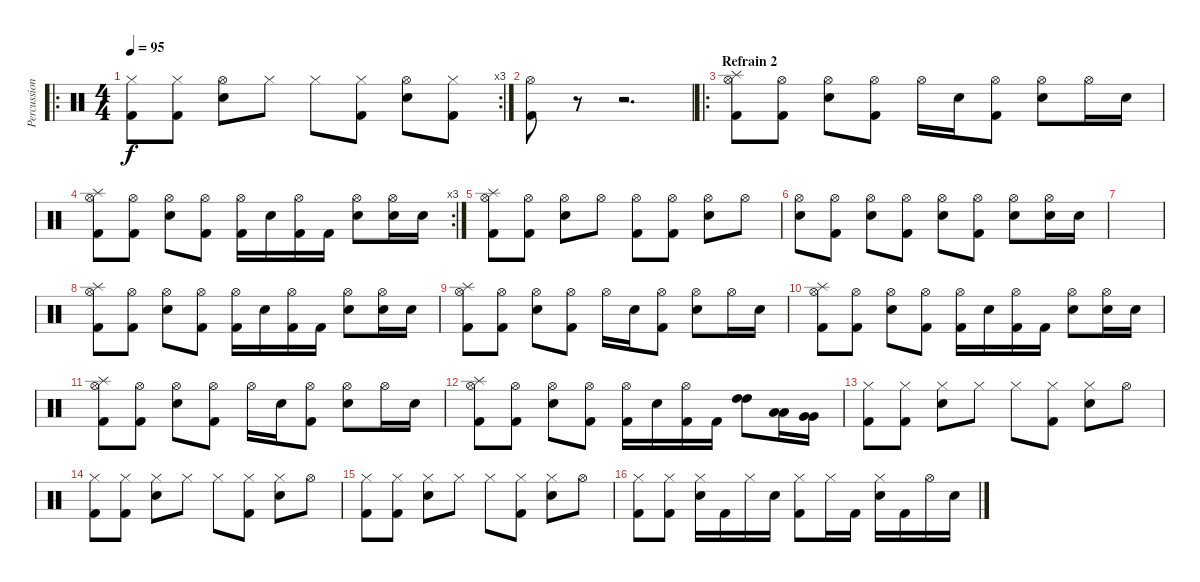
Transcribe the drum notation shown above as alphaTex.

\track ("Percussions" "Percussion") {instrument percussion}
\staff {score}
\articulation defaults
\ro
\rc 3
\ts (4 4)
\tempo 95
\clef neutral
\ks c
("Hi-Hat (closed)" "Kick (hit) 2").8{dy f} ("Hi-Hat (closed)" "Kick (hit) 2").8 ("Hi-Hat (open)" "Snare (hit) 2").8 "Hi-Hat (closed)".8 "Hi-Hat (closed)".8 ("Hi-Hat (closed)" "Kick (hit) 2").8 ("Hi-Hat (open)" "Snare (hit) 2").8 ("Hi-Hat (closed)" "Kick (hit) 2").8 |
("Hi-Hat (open)" "Kick (hit) 2").8 r.8 r.2{d} |
\ro
\section ("" "Refrain 2")
("Splash (hit)" "Hi-Hat (open)" "Kick (hit) 2").8 ("Hi-Hat (open)" "Kick (hit) 2").8 ("Hi-Hat (open)" "Snare (hit) 2").8 ("Hi-Hat (open)" "Kick (hit) 2").8 "Hi-Hat (open)".16 "Snare (hit) 2".16 ("Hi-Hat (open)" "Kick (hit) 2").8 ("Hi-Hat (open)" "Snare (hit) 2").8 "Hi-Hat (open)".16 "Snare (hit) 2".16 |
\rc 3
("Splash (hit)" "Hi-Hat (open)" "Kick (hit) 2").8 ("Hi-Hat (open)" "Kick (hit) 2").8 ("Hi-Hat (open)" "Snare (hit) 2").8 ("Hi-Hat (open)" "Kick (hit) 2").8 ("Hi-Hat (open)" "Kick (hit) 2").16 "Snare (hit) 2".16 ("Hi-Hat (open)" "Kick (hit) 2").16 "Kick (hit) 2".16 ("Hi-Hat (open)" "Snare (hit) 2").8 ("Hi-Hat (open)" "Snare (hit) 2").16 "Snare (hit) 2".16 |
("Splash (hit)" "Hi-Hat (open)" "Kick (hit) 2").8 ("Hi-Hat (open)" "Kick (hit) 2").8 ("Hi-Hat (open)" "Snare (hit) 2").8 "Hi-Hat (open)".8 ("Hi-Hat (open)" "Kick (hit) 2").8 ("Hi-Hat (open)" "Kick (hit) 2").8 ("Hi-Hat (open)" "Snare (hit) 2").8 "Hi-Hat (open)".8 |
("Hi-Hat (open)" "Snare (hit) 2").8 ("Hi-Hat (open)" "Kick (hit) 2").8 ("Hi-Hat (open)" "Snare (hit) 2").8 ("Hi-Hat (open)" "Kick (hit) 2").8 ("Hi-Hat (open)" "Snare (hit) 2").8 ("Hi-Hat (open)" "Kick (hit) 2").8 ("Hi-Hat (open)" "Snare (hit) 2").8 ("Hi-Hat (open)" "Snare (hit) 2").16 "Snare (hit) 2".16 |
|
("Splash (hit)" "Hi-Hat (open)" "Kick (hit) 2").8 ("Hi-Hat (open)" "Kick (hit) 2").8 ("Hi-Hat (open)" "Snare (hit) 2").8 ("Hi-Hat (open)" "Kick (hit) 2").8 ("Hi-Hat (open)" "Kick (hit) 2").16 "Snare (hit) 2".16 ("Hi-Hat (open)" "Kick (hit) 2").16 "Kick (hit) 2".16 ("Hi-Hat (open)" "Snare (hit) 2").8 ("Hi-Hat (open)" "Snare (hit) 2").16 "Snare (hit) 2".16 |
("Splash (hit)" "Hi-Hat (open)" "Kick (hit) 2").8 ("Hi-Hat (open)" "Kick (hit) 2").8 ("Hi-Hat (open)" "Snare (hit) 2").8 ("Hi-Hat (open)" "Kick (hit) 2").8 "Hi-Hat (open)".16 "Snare (hit) 2".16 ("Hi-Hat (open)" "Kick (hit) 2").8 ("Hi-Hat (open)" "Snare (hit) 2").8 "Hi-Hat (open)".16 "Snare (hit) 2".16 |
("Splash (hit)" "Hi-Hat (open)" "Kick (hit) 2").8 ("Hi-Hat (open)" "Kick (hit) 2").8 ("Hi-Hat (open)" "Snare (hit) 2").8 ("Hi-Hat (open)" "Kick (hit) 2").8 ("Hi-Hat (open)" "Kick (hit) 2").16 "Snare (hit) 2".16 ("Hi-Hat (open)" "Kick (hit) 2").16 "Kick (hit) 2".16 ("Hi-Hat (open)" "Snare (hit) 2").8 ("Hi-Hat (open)" "Snare (hit) 2").16 "Snare (hit) 2".16 |
("Splash (hit)" "Hi-Hat (open)" "Kick (hit) 2").8 ("Hi-Hat (open)" "Kick (hit) 2").8 ("Hi-Hat (open)" "Snare (hit) 2").8 ("Hi-Hat (open)" "Kick (hit) 2").8 "Hi-Hat (open)".16 "Snare (hit) 2".16 ("Hi-Hat (open)" "Kick (hit) 2").8 ("Hi-Hat (open)" "Snare (hit) 2").8 "Hi-Hat (open)".16 "Snare (hit) 2".16 |
("Splash (hit)" "Hi-Hat (open)" "Kick (hit) 2").8 ("Hi-Hat (open)" "Kick (hit) 2").8 ("Hi-Hat (open)" "Snare (hit) 2").8 ("Hi-Hat (open)" "Kick (hit) 2").8 ("Hi-Hat (open)" "Kick (hit) 2").16 "Snare (hit) 2".16 ("Hi-Hat (open)" "Kick (hit) 2").16 "Kick (hit) 2".16 ("High Tom (hit)" "High Tom (hit)").8 ("Low Tom (hit)" "Low Tom (hit)").16 ("Very Low Tom (hit)" "Very Low Tom (hit)").16 |
("Hi-Hat (closed)" "Kick (hit) 2").8 ("Hi-Hat (closed)" "Kick (hit) 2").8 ("Hi-Hat (closed)" "Snare (hit) 2").8 "Hi-Hat (closed)".8 "Hi-Hat (closed)".8 ("Hi-Hat (closed)" "Kick (hit) 2").8 ("Hi-Hat (closed)" "Snare (hit) 2").8 "Hi-Hat (open)".8 |
("Hi-Hat (closed)" "Kick (hit) 2").8 ("Hi-Hat (closed)" "Kick (hit) 2").8 ("Hi-Hat (closed)" "Snare (hit) 2").8 "Hi-Hat (closed)".8 "Hi-Hat (closed)".8 ("Hi-Hat (closed)" "Kick (hit) 2").8 ("Hi-Hat (closed)" "Snare (hit) 2").8 "Hi-Hat (open)".8 |
("Hi-Hat (closed)" "Kick (hit) 2").8 ("Hi-Hat (closed)" "Kick (hit) 2").8 ("Hi-Hat (closed)" "Snare (hit) 2").8 "Hi-Hat (closed)".8 "Hi-Hat (closed)".8 ("Hi-Hat (closed)" "Kick (hit) 2").8 ("Hi-Hat (closed)" "Snare (hit) 2").8 "Hi-Hat (open)".8 |
("Hi-Hat (closed)" "Kick (hit) 2").8 ("Hi-Hat (closed)" "Kick (hit) 2").8 ("Hi-Hat (closed)" "Snare (hit) 2").16 "Kick (hit) 2".16 "Hi-Hat (closed)".16 "Snare (hit) 2".16 ("Hi-Hat (closed)" "Kick (hit) 2").8 "Hi-Hat (closed)".16 "Kick (hit) 2".16 ("Hi-Hat (closed)" "Snare (hit) 2").16 "Kick (hit) 2".16 "Hi-Hat (open)".16 "Snare (hit) 2".16
